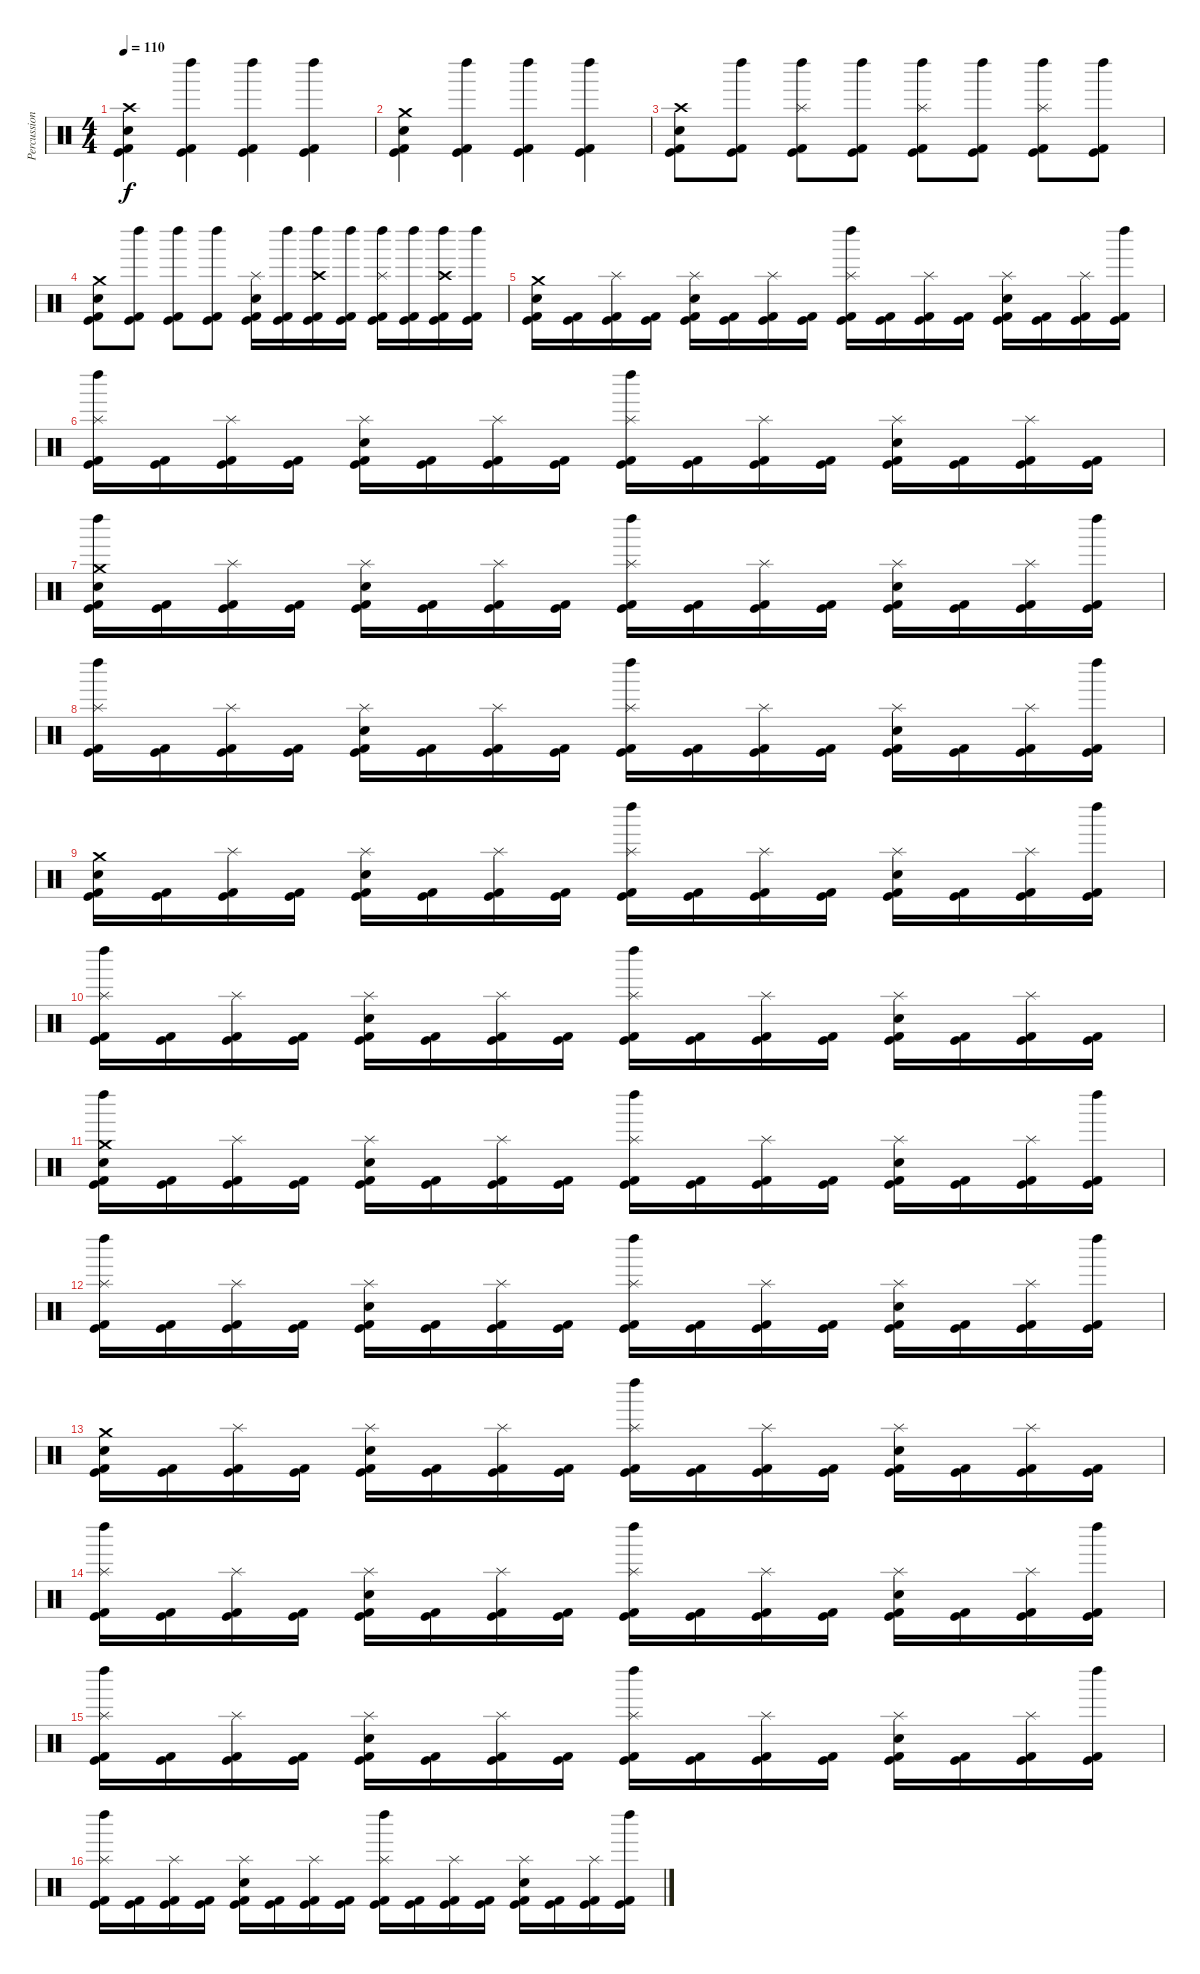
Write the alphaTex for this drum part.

\track ("Percussions" "Percussion") {instrument percussion}
\staff {score}
\articulation defaults
\ts (4 4)
\tempo 110
\clef neutral
\ks c
("Kick (hit)" "Kick (hit) 2" "Electric Snare (hit)" "Crash high (hit)").4{dy f} ("Kick (hit)" "Kick (hit) 2" "Left Maraca (hit)").4 ("Kick (hit)" "Kick (hit) 2" "Left Maraca (hit)").4 ("Kick (hit)" "Kick (hit) 2" "Left Maraca (hit)").4 |
("Kick (hit)" "Kick (hit) 2" "Electric Snare (hit)" "Crash medium (hit)").4 ("Kick (hit)" "Kick (hit) 2" "Left Maraca (hit)").4 ("Kick (hit)" "Kick (hit) 2" "Left Maraca (hit)").4 ("Kick (hit)" "Kick (hit) 2" "Left Maraca (hit)").4 |
("Kick (hit)" "Kick (hit) 2" "Electric Snare (hit)" "Crash high (hit)").8 ("Kick (hit)" "Kick (hit) 2" "Left Maraca (hit)").8 ("Kick (hit)" "Kick (hit) 2" "Left Maraca (hit)" "Splash (hit)").8 ("Kick (hit)" "Kick (hit) 2" "Left Maraca (hit)").8 ("Kick (hit)" "Kick (hit) 2" "Left Maraca (hit)" "Splash (hit)").8 ("Kick (hit)" "Kick (hit) 2" "Left Maraca (hit)").8 ("Kick (hit)" "Kick (hit) 2" "Left Maraca (hit)" "Splash (hit)").8 ("Kick (hit)" "Kick (hit) 2" "Left Maraca (hit)").8 |
("Kick (hit)" "Kick (hit) 2" "Electric Snare (hit)" "Crash medium (hit)").8 ("Kick (hit)" "Kick (hit) 2" "Left Maraca (hit)").8 ("Kick (hit)" "Kick (hit) 2" "Left Maraca (hit)").8 ("Kick (hit)" "Kick (hit) 2" "Left Maraca (hit)").8 ("Kick (hit)" "Kick (hit) 2" "Electric Snare (hit)" "Splash (hit)").16 ("Kick (hit)" "Kick (hit) 2" "Left Maraca (hit)").16 ("Kick (hit)" "Kick (hit) 2" "Left Maraca (hit)" "Crash high (hit)").16 ("Kick (hit)" "Kick (hit) 2" "Left Maraca (hit)").16 ("Kick (hit)" "Kick (hit) 2" "Left Maraca (hit)" "Splash (hit)").16 ("Kick (hit)" "Kick (hit) 2" "Left Maraca (hit)").16 ("Kick (hit)" "Kick (hit) 2" "Left Maraca (hit)" "Crash high (hit)").16 ("Kick (hit)" "Kick (hit) 2" "Left Maraca (hit)").16 |
("Kick (hit)" "Kick (hit) 2" "Electric Snare (hit)" "Crash medium (hit)").16 ("Kick (hit)" "Kick (hit) 2").16 ("Kick (hit)" "Kick (hit) 2" "Splash (hit)").16 ("Kick (hit)" "Kick (hit) 2").16 ("Kick (hit)" "Kick (hit) 2" "Electric Snare (hit)" "Splash (hit)").16 ("Kick (hit)" "Kick (hit) 2").16 ("Kick (hit)" "Kick (hit) 2" "Splash (hit)").16 ("Kick (hit)" "Kick (hit) 2").16 ("Kick (hit)" "Kick (hit) 2" "Left Maraca (hit)" "Splash (hit)").16 ("Kick (hit)" "Kick (hit) 2").16 ("Kick (hit)" "Kick (hit) 2" "Splash (hit)").16 ("Kick (hit)" "Kick (hit) 2").16 ("Kick (hit)" "Kick (hit) 2" "Electric Snare (hit)" "Splash (hit)").16 ("Kick (hit)" "Kick (hit) 2").16 ("Kick (hit)" "Kick (hit) 2" "Splash (hit)").16 ("Kick (hit)" "Kick (hit) 2" "Left Maraca (hit)").16 |
("Kick (hit)" "Kick (hit) 2" "Left Maraca (hit)" "Splash (hit)").16 ("Kick (hit)" "Kick (hit) 2").16 ("Kick (hit)" "Kick (hit) 2" "Splash (hit)").16 ("Kick (hit)" "Kick (hit) 2").16 ("Kick (hit)" "Kick (hit) 2" "Electric Snare (hit)" "Splash (hit)").16 ("Kick (hit)" "Kick (hit) 2").16 ("Kick (hit)" "Kick (hit) 2" "Splash (hit)").16 ("Kick (hit)" "Kick (hit) 2").16 ("Kick (hit)" "Kick (hit) 2" "Left Maraca (hit)" "Splash (hit)").16 ("Kick (hit)" "Kick (hit) 2").16 ("Kick (hit)" "Kick (hit) 2" "Splash (hit)").16 ("Kick (hit)" "Kick (hit) 2").16 ("Kick (hit)" "Kick (hit) 2" "Electric Snare (hit)" "Splash (hit)").16 ("Kick (hit)" "Kick (hit) 2").16 ("Kick (hit)" "Kick (hit) 2" "Splash (hit)").16 ("Kick (hit)" "Kick (hit) 2").16 |
("Kick (hit)" "Kick (hit) 2" "Left Maraca (hit)" "Electric Snare (hit)" "Crash medium (hit)").16 ("Kick (hit)" "Kick (hit) 2").16 ("Kick (hit)" "Kick (hit) 2" "Splash (hit)").16 ("Kick (hit)" "Kick (hit) 2").16 ("Kick (hit)" "Kick (hit) 2" "Electric Snare (hit)" "Splash (hit)").16 ("Kick (hit)" "Kick (hit) 2").16 ("Kick (hit)" "Kick (hit) 2" "Splash (hit)").16 ("Kick (hit)" "Kick (hit) 2").16 ("Kick (hit)" "Kick (hit) 2" "Left Maraca (hit)" "Splash (hit)").16 ("Kick (hit)" "Kick (hit) 2").16 ("Kick (hit)" "Kick (hit) 2" "Splash (hit)").16 ("Kick (hit)" "Kick (hit) 2").16 ("Kick (hit)" "Kick (hit) 2" "Electric Snare (hit)" "Splash (hit)").16 ("Kick (hit)" "Kick (hit) 2").16 ("Kick (hit)" "Kick (hit) 2" "Splash (hit)").16 ("Kick (hit)" "Kick (hit) 2" "Left Maraca (hit)").16 |
("Kick (hit)" "Kick (hit) 2" "Left Maraca (hit)" "Splash (hit)").16 ("Kick (hit)" "Kick (hit) 2").16 ("Kick (hit)" "Kick (hit) 2" "Splash (hit)").16 ("Kick (hit)" "Kick (hit) 2").16 ("Kick (hit)" "Kick (hit) 2" "Electric Snare (hit)" "Splash (hit)").16 ("Kick (hit)" "Kick (hit) 2").16 ("Kick (hit)" "Kick (hit) 2" "Splash (hit)").16 ("Kick (hit)" "Kick (hit) 2").16 ("Kick (hit)" "Kick (hit) 2" "Left Maraca (hit)" "Splash (hit)").16 ("Kick (hit)" "Kick (hit) 2").16 ("Kick (hit)" "Kick (hit) 2" "Splash (hit)").16 ("Kick (hit)" "Kick (hit) 2").16 ("Kick (hit)" "Kick (hit) 2" "Electric Snare (hit)" "Splash (hit)").16 ("Kick (hit)" "Kick (hit) 2").16 ("Kick (hit)" "Kick (hit) 2" "Splash (hit)").16 ("Kick (hit)" "Kick (hit) 2" "Left Maraca (hit)").16 |
("Kick (hit)" "Kick (hit) 2" "Electric Snare (hit)" "Crash medium (hit)").16 ("Kick (hit)" "Kick (hit) 2").16 ("Kick (hit)" "Kick (hit) 2" "Splash (hit)").16 ("Kick (hit)" "Kick (hit) 2").16 ("Kick (hit)" "Kick (hit) 2" "Electric Snare (hit)" "Splash (hit)").16 ("Kick (hit)" "Kick (hit) 2").16 ("Kick (hit)" "Kick (hit) 2" "Splash (hit)").16 ("Kick (hit)" "Kick (hit) 2").16 ("Kick (hit)" "Kick (hit) 2" "Left Maraca (hit)" "Splash (hit)").16 ("Kick (hit)" "Kick (hit) 2").16 ("Kick (hit)" "Kick (hit) 2" "Splash (hit)").16 ("Kick (hit)" "Kick (hit) 2").16 ("Kick (hit)" "Kick (hit) 2" "Electric Snare (hit)" "Splash (hit)").16 ("Kick (hit)" "Kick (hit) 2").16 ("Kick (hit)" "Kick (hit) 2" "Splash (hit)").16 ("Kick (hit)" "Kick (hit) 2" "Left Maraca (hit)").16 |
("Kick (hit)" "Kick (hit) 2" "Left Maraca (hit)" "Splash (hit)").16 ("Kick (hit)" "Kick (hit) 2").16 ("Kick (hit)" "Kick (hit) 2" "Splash (hit)").16 ("Kick (hit)" "Kick (hit) 2").16 ("Kick (hit)" "Kick (hit) 2" "Electric Snare (hit)" "Splash (hit)").16 ("Kick (hit)" "Kick (hit) 2").16 ("Kick (hit)" "Kick (hit) 2" "Splash (hit)").16 ("Kick (hit)" "Kick (hit) 2").16 ("Kick (hit)" "Kick (hit) 2" "Left Maraca (hit)" "Splash (hit)").16 ("Kick (hit)" "Kick (hit) 2").16 ("Kick (hit)" "Kick (hit) 2" "Splash (hit)").16 ("Kick (hit)" "Kick (hit) 2").16 ("Kick (hit)" "Kick (hit) 2" "Electric Snare (hit)" "Splash (hit)").16 ("Kick (hit)" "Kick (hit) 2").16 ("Kick (hit)" "Kick (hit) 2" "Splash (hit)").16 ("Kick (hit)" "Kick (hit) 2").16 |
("Kick (hit)" "Kick (hit) 2" "Left Maraca (hit)" "Electric Snare (hit)" "Crash medium (hit)").16 ("Kick (hit)" "Kick (hit) 2").16 ("Kick (hit)" "Kick (hit) 2" "Splash (hit)").16 ("Kick (hit)" "Kick (hit) 2").16 ("Kick (hit)" "Kick (hit) 2" "Electric Snare (hit)" "Splash (hit)").16 ("Kick (hit)" "Kick (hit) 2").16 ("Kick (hit)" "Kick (hit) 2" "Splash (hit)").16 ("Kick (hit)" "Kick (hit) 2").16 ("Kick (hit)" "Kick (hit) 2" "Left Maraca (hit)" "Splash (hit)").16 ("Kick (hit)" "Kick (hit) 2").16 ("Kick (hit)" "Kick (hit) 2" "Splash (hit)").16 ("Kick (hit)" "Kick (hit) 2").16 ("Kick (hit)" "Kick (hit) 2" "Electric Snare (hit)" "Splash (hit)").16 ("Kick (hit)" "Kick (hit) 2").16 ("Kick (hit)" "Kick (hit) 2" "Splash (hit)").16 ("Kick (hit)" "Kick (hit) 2" "Left Maraca (hit)").16 |
("Kick (hit)" "Kick (hit) 2" "Left Maraca (hit)" "Splash (hit)").16 ("Kick (hit)" "Kick (hit) 2").16 ("Kick (hit)" "Kick (hit) 2" "Splash (hit)").16 ("Kick (hit)" "Kick (hit) 2").16 ("Kick (hit)" "Kick (hit) 2" "Electric Snare (hit)" "Splash (hit)").16 ("Kick (hit)" "Kick (hit) 2").16 ("Kick (hit)" "Kick (hit) 2" "Splash (hit)").16 ("Kick (hit)" "Kick (hit) 2").16 ("Kick (hit)" "Kick (hit) 2" "Left Maraca (hit)" "Splash (hit)").16 ("Kick (hit)" "Kick (hit) 2").16 ("Kick (hit)" "Kick (hit) 2" "Splash (hit)").16 ("Kick (hit)" "Kick (hit) 2").16 ("Kick (hit)" "Kick (hit) 2" "Electric Snare (hit)" "Splash (hit)").16 ("Kick (hit)" "Kick (hit) 2").16 ("Kick (hit)" "Kick (hit) 2" "Splash (hit)").16 ("Kick (hit)" "Kick (hit) 2" "Left Maraca (hit)").16 |
("Kick (hit)" "Kick (hit) 2" "Electric Snare (hit)" "Crash medium (hit)").16 ("Kick (hit)" "Kick (hit) 2").16 ("Kick (hit)" "Kick (hit) 2" "Splash (hit)").16 ("Kick (hit)" "Kick (hit) 2").16 ("Kick (hit)" "Kick (hit) 2" "Electric Snare (hit)" "Splash (hit)").16 ("Kick (hit)" "Kick (hit) 2").16 ("Kick (hit)" "Kick (hit) 2" "Splash (hit)").16 ("Kick (hit)" "Kick (hit) 2").16 ("Kick (hit)" "Kick (hit) 2" "Left Maraca (hit)" "Splash (hit)").16 ("Kick (hit)" "Kick (hit) 2").16 ("Kick (hit)" "Kick (hit) 2" "Splash (hit)").16 ("Kick (hit)" "Kick (hit) 2").16 ("Kick (hit)" "Kick (hit) 2" "Electric Snare (hit)" "Splash (hit)").16 ("Kick (hit)" "Kick (hit) 2").16 ("Kick (hit)" "Kick (hit) 2" "Splash (hit)").16 ("Kick (hit)" "Kick (hit) 2").16 |
("Kick (hit)" "Kick (hit) 2" "Left Maraca (hit)" "Splash (hit)").16 ("Kick (hit)" "Kick (hit) 2").16 ("Kick (hit)" "Kick (hit) 2" "Splash (hit)").16 ("Kick (hit)" "Kick (hit) 2").16 ("Kick (hit)" "Kick (hit) 2" "Electric Snare (hit)" "Splash (hit)").16 ("Kick (hit)" "Kick (hit) 2").16 ("Kick (hit)" "Kick (hit) 2" "Splash (hit)").16 ("Kick (hit)" "Kick (hit) 2").16 ("Kick (hit)" "Kick (hit) 2" "Left Maraca (hit)" "Splash (hit)").16 ("Kick (hit)" "Kick (hit) 2").16 ("Kick (hit)" "Kick (hit) 2" "Splash (hit)").16 ("Kick (hit)" "Kick (hit) 2").16 ("Kick (hit)" "Kick (hit) 2" "Electric Snare (hit)" "Splash (hit)").16 ("Kick (hit)" "Kick (hit) 2").16 ("Kick (hit)" "Kick (hit) 2" "Splash (hit)").16 ("Kick (hit)" "Kick (hit) 2" "Left Maraca (hit)").16 |
("Kick (hit)" "Kick (hit) 2" "Left Maraca (hit)" "Splash (hit)").16 ("Kick (hit)" "Kick (hit) 2").16 ("Kick (hit)" "Kick (hit) 2" "Splash (hit)").16 ("Kick (hit)" "Kick (hit) 2").16 ("Kick (hit)" "Kick (hit) 2" "Electric Snare (hit)" "Splash (hit)").16 ("Kick (hit)" "Kick (hit) 2").16 ("Kick (hit)" "Kick (hit) 2" "Splash (hit)").16 ("Kick (hit)" "Kick (hit) 2").16 ("Kick (hit)" "Kick (hit) 2" "Left Maraca (hit)" "Splash (hit)").16 ("Kick (hit)" "Kick (hit) 2").16 ("Kick (hit)" "Kick (hit) 2" "Splash (hit)").16 ("Kick (hit)" "Kick (hit) 2").16 ("Kick (hit)" "Kick (hit) 2" "Electric Snare (hit)" "Splash (hit)").16 ("Kick (hit)" "Kick (hit) 2").16 ("Kick (hit)" "Kick (hit) 2" "Splash (hit)").16 ("Kick (hit)" "Kick (hit) 2" "Left Maraca (hit)").16 |
("Kick (hit)" "Kick (hit) 2" "Left Maraca (hit)" "Splash (hit)").16 ("Kick (hit)" "Kick (hit) 2").16 ("Kick (hit)" "Kick (hit) 2" "Splash (hit)").16 ("Kick (hit)" "Kick (hit) 2").16 ("Kick (hit)" "Kick (hit) 2" "Electric Snare (hit)" "Splash (hit)").16 ("Kick (hit)" "Kick (hit) 2").16 ("Kick (hit)" "Kick (hit) 2" "Splash (hit)").16 ("Kick (hit)" "Kick (hit) 2").16 ("Kick (hit)" "Kick (hit) 2" "Left Maraca (hit)" "Splash (hit)").16 ("Kick (hit)" "Kick (hit) 2").16 ("Kick (hit)" "Kick (hit) 2" "Splash (hit)").16 ("Kick (hit)" "Kick (hit) 2").16 ("Kick (hit)" "Kick (hit) 2" "Electric Snare (hit)" "Splash (hit)").16 ("Kick (hit)" "Kick (hit) 2").16 ("Kick (hit)" "Kick (hit) 2" "Splash (hit)").16 ("Kick (hit)" "Kick (hit) 2" "Left Maraca (hit)").16
